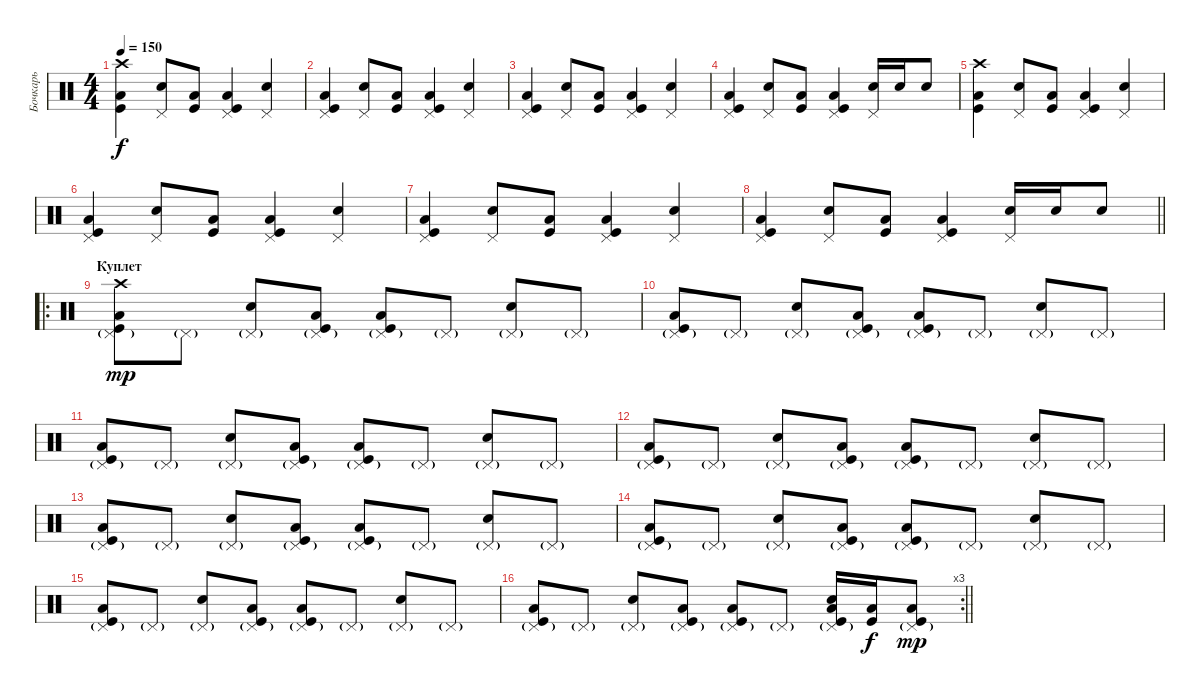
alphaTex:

\track ("Бочкарь" "Бочкарь") {instrument percussion}
\staff {score}
\articulation defaults
\ts (4 4)
\tempo 150
\clef neutral
\ks c
("Crash high (hit)" "Low Tom (hit)" "Kick (hit)").4{dy f} ("Pedal Hi-Hat (hit)" "Electric Snare (hit)").8 ("Low Tom (hit)" "Kick (hit)").8 ("Pedal Hi-Hat (hit)" "Low Tom (hit)" "Kick (hit)").4 ("Pedal Hi-Hat (hit)" "Electric Snare (hit)").4 |
("Pedal Hi-Hat (hit)" "Low Tom (hit)" "Kick (hit)").4 ("Pedal Hi-Hat (hit)" "Electric Snare (hit)").8 ("Low Tom (hit)" "Kick (hit)").8 ("Pedal Hi-Hat (hit)" "Low Tom (hit)" "Kick (hit)").4 ("Pedal Hi-Hat (hit)" "Electric Snare (hit)").4 |
("Pedal Hi-Hat (hit)" "Low Tom (hit)" "Kick (hit)").4 ("Pedal Hi-Hat (hit)" "Electric Snare (hit)").8 ("Low Tom (hit)" "Kick (hit)").8 ("Pedal Hi-Hat (hit)" "Low Tom (hit)" "Kick (hit)").4 ("Pedal Hi-Hat (hit)" "Electric Snare (hit)").4 |
("Pedal Hi-Hat (hit)" "Low Tom (hit)" "Kick (hit)").4 ("Pedal Hi-Hat (hit)" "Electric Snare (hit)").8 ("Low Tom (hit)" "Kick (hit)").8 ("Pedal Hi-Hat (hit)" "Low Tom (hit)" "Kick (hit)").4 ("Pedal Hi-Hat (hit)" "Snare (hit) 2").16 "Snare (hit) 2".16 "Electric Snare (hit)".8 |
("Crash high (hit)" "Low Tom (hit)" "Kick (hit)").4 ("Pedal Hi-Hat (hit)" "Electric Snare (hit)").8 ("Low Tom (hit)" "Kick (hit)").8 ("Pedal Hi-Hat (hit)" "Low Tom (hit)" "Kick (hit)").4 ("Pedal Hi-Hat (hit)" "Electric Snare (hit)").4 |
("Pedal Hi-Hat (hit)" "Low Tom (hit)" "Kick (hit)").4 ("Pedal Hi-Hat (hit)" "Electric Snare (hit)").8 ("Low Tom (hit)" "Kick (hit)").8 ("Pedal Hi-Hat (hit)" "Low Tom (hit)" "Kick (hit)").4 ("Pedal Hi-Hat (hit)" "Electric Snare (hit)").4 |
("Pedal Hi-Hat (hit)" "Low Tom (hit)" "Kick (hit)").4 ("Pedal Hi-Hat (hit)" "Electric Snare (hit)").8 ("Low Tom (hit)" "Kick (hit)").8 ("Pedal Hi-Hat (hit)" "Low Tom (hit)" "Kick (hit)").4 ("Pedal Hi-Hat (hit)" "Electric Snare (hit)").4 |
\barLineRight lightlight
("Pedal Hi-Hat (hit)" "Low Tom (hit)" "Kick (hit)").4 ("Pedal Hi-Hat (hit)" "Electric Snare (hit)").8 ("Low Tom (hit)" "Kick (hit)").8 ("Pedal Hi-Hat (hit)" "Low Tom (hit)" "Kick (hit)").4 ("Pedal Hi-Hat (hit)" "Snare (hit) 2").16 "Snare (hit) 2".16 "Electric Snare (hit)".8 |
\ro
\section ("" "Куплет")
("Pedal Hi-Hat (hit)"{g} "Crash high (hit)" "Low Tom (hit)" "Kick (hit)").8{dy mp} "Pedal Hi-Hat (hit)"{g}.8 ("Pedal Hi-Hat (hit)"{g} "Electric Snare (hit)").8 ("Pedal Hi-Hat (hit)"{g} "Low Tom (hit)" "Kick (hit)").8 ("Pedal Hi-Hat (hit)"{g} "Low Tom (hit)" "Kick (hit)").8 "Pedal Hi-Hat (hit)"{g}.8 ("Pedal Hi-Hat (hit)"{g} "Electric Snare (hit)").8 "Pedal Hi-Hat (hit)"{g}.8 |
("Pedal Hi-Hat (hit)"{g} "Low Tom (hit)" "Kick (hit)").8 "Pedal Hi-Hat (hit)"{g}.8 ("Pedal Hi-Hat (hit)"{g} "Electric Snare (hit)").8 ("Pedal Hi-Hat (hit)"{g} "Low Tom (hit)" "Kick (hit)").8 ("Pedal Hi-Hat (hit)"{g} "Low Tom (hit)" "Kick (hit)").8 "Pedal Hi-Hat (hit)"{g}.8 ("Pedal Hi-Hat (hit)"{g} "Electric Snare (hit)").8 "Pedal Hi-Hat (hit)"{g}.8 |
("Pedal Hi-Hat (hit)"{g} "Low Tom (hit)" "Kick (hit)").8 "Pedal Hi-Hat (hit)"{g}.8 ("Pedal Hi-Hat (hit)"{g} "Electric Snare (hit)").8 ("Pedal Hi-Hat (hit)"{g} "Low Tom (hit)" "Kick (hit)").8 ("Pedal Hi-Hat (hit)"{g} "Low Tom (hit)" "Kick (hit)").8 "Pedal Hi-Hat (hit)"{g}.8 ("Pedal Hi-Hat (hit)"{g} "Electric Snare (hit)").8 "Pedal Hi-Hat (hit)"{g}.8 |
("Pedal Hi-Hat (hit)"{g} "Low Tom (hit)" "Kick (hit)").8 "Pedal Hi-Hat (hit)"{g}.8 ("Pedal Hi-Hat (hit)"{g} "Electric Snare (hit)").8 ("Pedal Hi-Hat (hit)"{g} "Low Tom (hit)" "Kick (hit)").8 ("Pedal Hi-Hat (hit)"{g} "Low Tom (hit)" "Kick (hit)").8 "Pedal Hi-Hat (hit)"{g}.8 ("Pedal Hi-Hat (hit)"{g} "Electric Snare (hit)").8 "Pedal Hi-Hat (hit)"{g}.8 |
("Pedal Hi-Hat (hit)"{g} "Low Tom (hit)" "Kick (hit)").8 "Pedal Hi-Hat (hit)"{g}.8 ("Pedal Hi-Hat (hit)"{g} "Electric Snare (hit)").8 ("Pedal Hi-Hat (hit)"{g} "Low Tom (hit)" "Kick (hit)").8 ("Pedal Hi-Hat (hit)"{g} "Low Tom (hit)" "Kick (hit)").8 "Pedal Hi-Hat (hit)"{g}.8 ("Pedal Hi-Hat (hit)"{g} "Electric Snare (hit)").8 "Pedal Hi-Hat (hit)"{g}.8 |
("Pedal Hi-Hat (hit)"{g} "Low Tom (hit)" "Kick (hit)").8 "Pedal Hi-Hat (hit)"{g}.8 ("Pedal Hi-Hat (hit)"{g} "Electric Snare (hit)").8 ("Pedal Hi-Hat (hit)"{g} "Low Tom (hit)" "Kick (hit)").8 ("Pedal Hi-Hat (hit)"{g} "Low Tom (hit)" "Kick (hit)").8 "Pedal Hi-Hat (hit)"{g}.8 ("Pedal Hi-Hat (hit)"{g} "Electric Snare (hit)").8 "Pedal Hi-Hat (hit)"{g}.8 |
("Pedal Hi-Hat (hit)"{g} "Low Tom (hit)" "Kick (hit)").8 "Pedal Hi-Hat (hit)"{g}.8 ("Pedal Hi-Hat (hit)"{g} "Electric Snare (hit)").8 ("Pedal Hi-Hat (hit)"{g} "Low Tom (hit)" "Kick (hit)").8 ("Pedal Hi-Hat (hit)"{g} "Low Tom (hit)" "Kick (hit)").8 "Pedal Hi-Hat (hit)"{g}.8 ("Pedal Hi-Hat (hit)"{g} "Electric Snare (hit)").8 "Pedal Hi-Hat (hit)"{g}.8 |
\rc 3
\barLineRight lightlight
("Pedal Hi-Hat (hit)"{g} "Low Tom (hit)" "Kick (hit)").8 "Pedal Hi-Hat (hit)"{g}.8 ("Pedal Hi-Hat (hit)"{g} "Electric Snare (hit)").8 ("Pedal Hi-Hat (hit)"{g} "Low Tom (hit)" "Kick (hit)").8 ("Pedal Hi-Hat (hit)"{g} "Low Tom (hit)" "Kick (hit)").8 "Pedal Hi-Hat (hit)"{g}.8 ("Pedal Hi-Hat (hit)"{g} "Electric Snare (hit)" "Low Tom (hit)" "Kick (hit)").16 ("Low Tom (hit)" "Kick (hit)").16{dy f} ("Pedal Hi-Hat (hit)"{g} "Low Tom (hit)" "Kick (hit)").8{dy mp}
